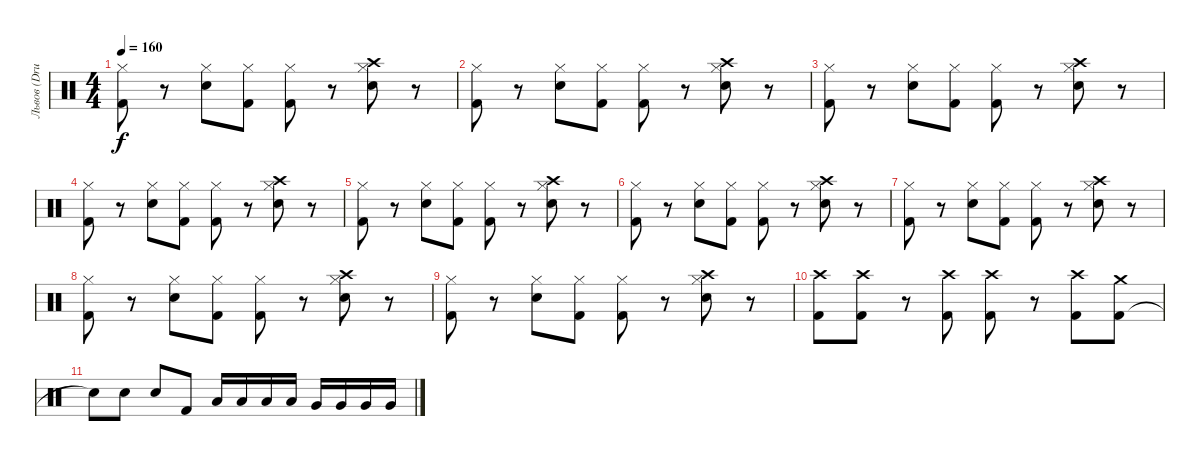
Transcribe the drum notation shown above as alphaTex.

\track ("Львов (Drums)" "Львов (Dru") {instrument percussion}
\staff {score}
\articulation defaults
\ts (4 4)
\tempo 160
\clef neutral
\ks c
("Kick (hit) 2" "Hi-Hat (closed)").8{dy f} r.8 ("Electric Snare (hit)" "Hi-Hat (closed)").8 ("Kick (hit) 2" "Hi-Hat (closed)").8 ("Kick (hit) 2" "Hi-Hat (closed)").8 r.8 ("Electric Snare (hit)" "Crash high (hit)" "Hi-Hat (closed)").8 r.8 |
("Kick (hit) 2" "Hi-Hat (closed)").8 r.8 ("Electric Snare (hit)" "Hi-Hat (closed)").8 ("Kick (hit) 2" "Hi-Hat (closed)").8 ("Kick (hit) 2" "Hi-Hat (closed)").8 r.8 ("Electric Snare (hit)" "Crash high (hit)" "Hi-Hat (closed)").8 r.8 |
("Kick (hit) 2" "Hi-Hat (closed)").8 r.8 ("Electric Snare (hit)" "Hi-Hat (closed)").8 ("Kick (hit) 2" "Hi-Hat (closed)").8 ("Kick (hit) 2" "Hi-Hat (closed)").8 r.8 ("Electric Snare (hit)" "Crash high (hit)" "Hi-Hat (closed)").8 r.8 |
("Kick (hit) 2" "Hi-Hat (closed)").8 r.8 ("Electric Snare (hit)" "Hi-Hat (closed)").8 ("Kick (hit) 2" "Hi-Hat (closed)").8 ("Kick (hit) 2" "Hi-Hat (closed)").8 r.8 ("Electric Snare (hit)" "Crash high (hit)" "Hi-Hat (closed)").8 r.8 |
("Kick (hit) 2" "Hi-Hat (closed)").8 r.8 ("Electric Snare (hit)" "Hi-Hat (closed)").8 ("Kick (hit) 2" "Hi-Hat (closed)").8 ("Kick (hit) 2" "Hi-Hat (closed)").8 r.8 ("Electric Snare (hit)" "Crash high (hit)" "Hi-Hat (closed)").8 r.8 |
("Kick (hit) 2" "Hi-Hat (closed)").8 r.8 ("Electric Snare (hit)" "Hi-Hat (closed)").8 ("Kick (hit) 2" "Hi-Hat (closed)").8 ("Kick (hit) 2" "Hi-Hat (closed)").8 r.8 ("Electric Snare (hit)" "Crash high (hit)" "Hi-Hat (closed)").8 r.8 |
("Kick (hit) 2" "Hi-Hat (closed)").8 r.8 ("Electric Snare (hit)" "Hi-Hat (closed)").8 ("Kick (hit) 2" "Hi-Hat (closed)").8 ("Kick (hit) 2" "Hi-Hat (closed)").8 r.8 ("Electric Snare (hit)" "Crash high (hit)" "Hi-Hat (closed)").8 r.8 |
("Kick (hit) 2" "Hi-Hat (closed)").8 r.8 ("Electric Snare (hit)" "Hi-Hat (closed)").8 ("Kick (hit) 2" "Hi-Hat (closed)").8 ("Kick (hit) 2" "Hi-Hat (closed)").8 r.8 ("Electric Snare (hit)" "Crash high (hit)" "Hi-Hat (closed)").8 r.8 |
("Kick (hit) 2" "Hi-Hat (closed)").8 r.8 ("Electric Snare (hit)" "Hi-Hat (closed)").8 ("Kick (hit) 2" "Hi-Hat (closed)").8 ("Kick (hit) 2" "Hi-Hat (closed)").8 r.8 ("Electric Snare (hit)" "Crash high (hit)" "Hi-Hat (closed)").8 r.8 |
("Kick (hit) 2" "Crash high (hit)").8 ("Kick (hit) 2" "Crash high (hit)").8 r.8 ("Kick (hit) 2" "Crash high (hit)").8 ("Kick (hit) 2" "Crash high (hit)").8 r.8 ("Kick (hit) 2" "Crash high (hit)").8 ("Kick (hit) 2" "Crash medium (hit)").8 |
"Snare (hit)"{t}.8 "Electric Snare (hit)".8 "Electric Snare (hit)".8 "Kick (hit) 2".8 "Low Tom (hit)".16 "Low Tom (hit)".16 "Low Tom (hit)".16 "Low Tom (hit)".16 "Very Low Tom (hit)".16 "Very Low Tom (hit)".16 "Very Low Tom (hit)".16 "Very Low Tom (hit)".16
